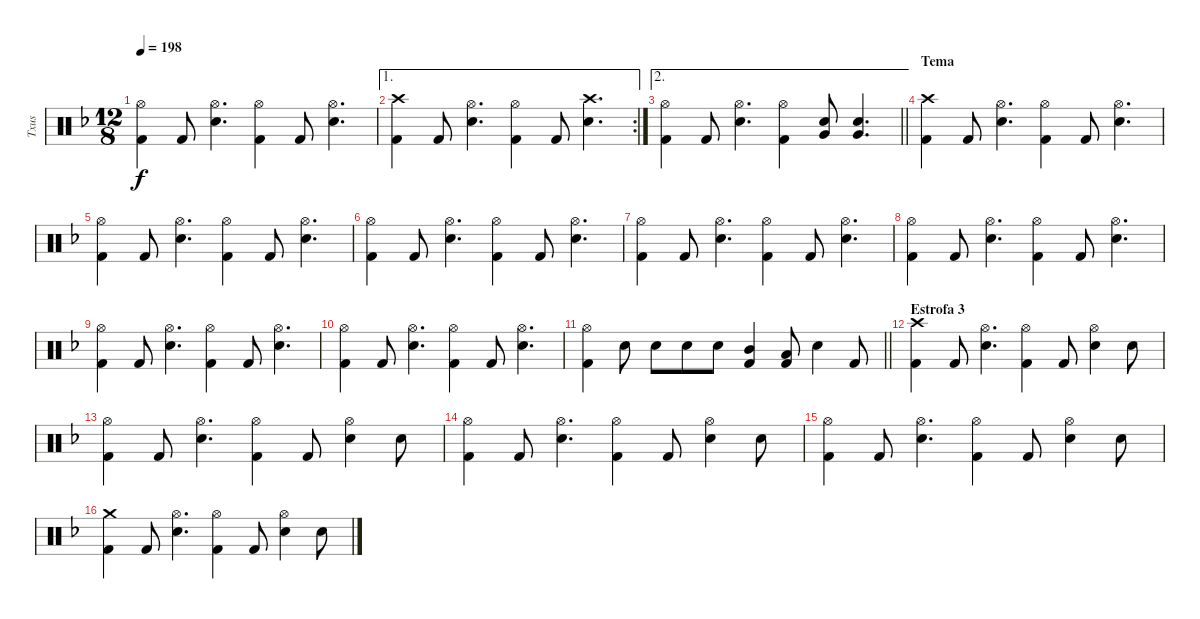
\track ("Txus" "Txus") {instrument percussion}
\staff {score}
\articulation defaults
\ts (12 8)
\tempo 198
\clef neutral
\ks dminor
("Hi-Hat (open)" "Kick (hit) 2").4{dy f} "Kick (hit) 2".8 ("Hi-Hat (open)" "Snare (hit) 2").4{d} ("Hi-Hat (open)" "Kick (hit) 2").4 "Kick (hit) 2".8 ("Hi-Hat (open)" "Snare (hit) 2").4{d} |
\ae 1
\rc 2
("Crash high (hit)" "Kick (hit) 2").4 "Kick (hit) 2".8 ("Hi-Hat (open)" "Snare (hit) 2").4{d} ("Hi-Hat (open)" "Kick (hit) 2").4 "Kick (hit) 2".8 ("Crash high (hit)" "Snare (hit) 2").4{d} |
\ae 2
\barLineRight lightlight
("Hi-Hat (open)" "Kick (hit) 2").4 "Kick (hit) 2".8 ("Hi-Hat (open)" "Snare (hit) 2").4{d} ("Hi-Hat (open)" "Kick (hit) 2").4 ("Snare (hit) 2" "Very Low Tom (hit)").8 ("Snare (hit) 2" "Very Low Tom (hit)").4{d} |
\section ("" "Tema")
("Crash high (hit)" "Kick (hit) 2").4 "Kick (hit) 2".8 ("Hi-Hat (open)" "Snare (hit) 2").4{d} ("Hi-Hat (open)" "Kick (hit) 2").4 "Kick (hit) 2".8 ("Hi-Hat (open)" "Snare (hit) 2").4{d} |
("Hi-Hat (open)" "Kick (hit) 2").4 "Kick (hit) 2".8 ("Hi-Hat (open)" "Snare (hit) 2").4{d} ("Hi-Hat (open)" "Kick (hit) 2").4 "Kick (hit) 2".8 ("Hi-Hat (open)" "Snare (hit) 2").4{d} |
("Hi-Hat (open)" "Kick (hit) 2").4 "Kick (hit) 2".8 ("Hi-Hat (open)" "Snare (hit) 2").4{d} ("Hi-Hat (open)" "Kick (hit) 2").4 "Kick (hit) 2".8 ("Hi-Hat (open)" "Snare (hit) 2").4{d} |
("Hi-Hat (open)" "Kick (hit) 2").4 "Kick (hit) 2".8 ("Hi-Hat (open)" "Snare (hit) 2").4{d} ("Hi-Hat (open)" "Kick (hit) 2").4 "Kick (hit) 2".8 ("Hi-Hat (open)" "Snare (hit) 2").4{d} |
("Hi-Hat (open)" "Kick (hit) 2").4 "Kick (hit) 2".8 ("Hi-Hat (open)" "Snare (hit) 2").4{d} ("Hi-Hat (open)" "Kick (hit) 2").4 "Kick (hit) 2".8 ("Hi-Hat (open)" "Snare (hit) 2").4{d} |
("Hi-Hat (open)" "Kick (hit) 2").4 "Kick (hit) 2".8 ("Hi-Hat (open)" "Snare (hit) 2").4{d} ("Hi-Hat (open)" "Kick (hit) 2").4 "Kick (hit) 2".8 ("Hi-Hat (open)" "Snare (hit) 2").4{d} |
("Hi-Hat (open)" "Kick (hit) 2").4 "Kick (hit) 2".8 ("Hi-Hat (open)" "Snare (hit) 2").4{d} ("Hi-Hat (open)" "Kick (hit) 2").4 "Kick (hit) 2".8 ("Hi-Hat (open)" "Snare (hit) 2").4{d} |
\barLineRight lightlight
("Hi-Hat (open)" "Kick (hit) 2").4 "Snare (hit) 2".8 "Snare (hit) 2".8 "Snare (hit) 2".8 "Snare (hit) 2".8 ("Mid Tom (hit)" "Kick (hit) 2").4 ("Low Tom (hit)" "Kick (hit) 2").8 "Snare (hit) 2".4 "Kick (hit) 2".8 |
\section ("" "Estrofa 3")
("Crash high (hit)" "Kick (hit) 2").4 "Kick (hit) 2".8 ("Hi-Hat (open)" "Snare (hit) 2").4{d} ("Hi-Hat (open)" "Kick (hit) 2").4 "Kick (hit) 2".8 ("Hi-Hat (open)" "Snare (hit) 2").4 "Snare (hit) 2".8 |
("Hi-Hat (open)" "Kick (hit) 2").4 "Kick (hit) 2".8 ("Hi-Hat (open)" "Snare (hit) 2").4{d} ("Hi-Hat (open)" "Kick (hit) 2").4 "Kick (hit) 2".8 ("Hi-Hat (open)" "Snare (hit) 2").4 "Snare (hit) 2".8 |
("Hi-Hat (open)" "Kick (hit) 2").4 "Kick (hit) 2".8 ("Hi-Hat (open)" "Snare (hit) 2").4{d} ("Hi-Hat (open)" "Kick (hit) 2").4 "Kick (hit) 2".8 ("Hi-Hat (open)" "Snare (hit) 2").4 "Snare (hit) 2".8 |
("Hi-Hat (open)" "Kick (hit) 2").4 "Kick (hit) 2".8 ("Hi-Hat (open)" "Snare (hit) 2").4{d} ("Hi-Hat (open)" "Kick (hit) 2").4 "Kick (hit) 2".8 ("Hi-Hat (open)" "Snare (hit) 2").4 "Snare (hit) 2".8 |
("Crash medium (hit)" "Kick (hit) 2").4 "Kick (hit) 2".8 ("Hi-Hat (open)" "Snare (hit) 2").4{d} ("Hi-Hat (open)" "Kick (hit) 2").4 "Kick (hit) 2".8 ("Hi-Hat (open)" "Snare (hit) 2").4 "Snare (hit) 2".8
